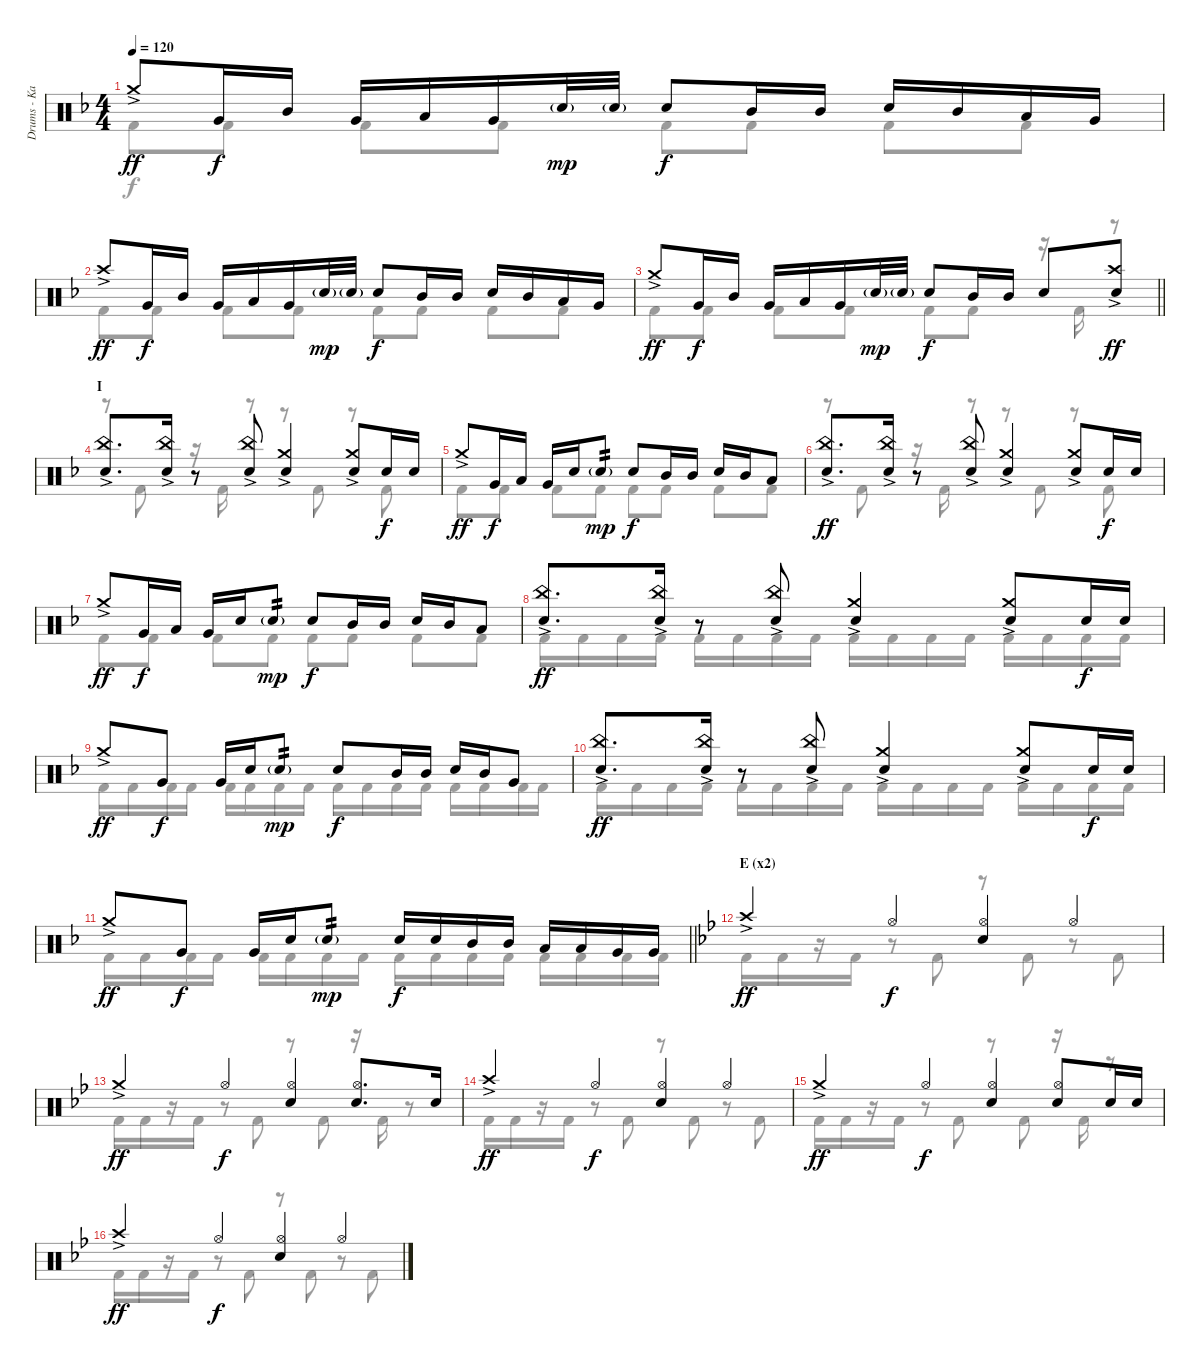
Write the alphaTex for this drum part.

\track ("Drums - Kai" "Drums - Ka") {instrument percussion}
\staff {score}
\articulation defaults
\voice
\ts (4 4)
\tempo 120
\clef neutral
\ks f "Crash medium (hit)"{ac}.8{dy ff} "Very Low Tom (hit)".16{dy f} "Mid Tom (hit)".16 "Very Low Tom (hit)".16 "Low Tom (hit)".16 "Very Low Tom (hit)".16 "Snare (hit) 2"{g}.32{dy mp} "Snare (hit) 2"{g}.32 "Snare (hit) 2".8{dy f} "Mid Tom (hit)".16 "Mid Tom (hit)".16 "Snare (hit) 2".16 "Mid Tom (hit)".16 "Low Tom (hit)".16 "Very Low Tom (hit)".16
|
"Crash high (hit)"{ac}.8{dy ff} "Very Low Tom (hit)".16{dy f} "Mid Tom (hit)".16 "Very Low Tom (hit)".16 "Low Tom (hit)".16 "Very Low Tom (hit)".16 "Snare (hit) 2"{g}.32{dy mp} "Snare (hit) 2"{g}.32 "Snare (hit) 2".8{dy f} "Mid Tom (hit)".16 "Mid Tom (hit)".16 "Snare (hit) 2".16 "Mid Tom (hit)".16 "Low Tom (hit)".16 "Very Low Tom (hit)".16 |
\barLineRight lightlight "Crash medium (hit)"{ac}.8{dy ff} "Very Low Tom (hit)".16{dy f} "Mid Tom (hit)".16 "Very Low Tom (hit)".16 "Low Tom (hit)".16 "Very Low Tom (hit)".16 "Snare (hit) 2"{g}.32{dy mp} "Snare (hit) 2"{g}.32 "Snare (hit) 2".8{dy f} "Mid Tom (hit)".16 "Mid Tom (hit)".16 "Snare (hit) 2".8
("Crash high (hit)"{ac} "Snare (hit) 2").8{dy ff} |
\section ("" "I")
("China (hit)"{ac} "Snare (hit) 2").8{d} ("China (hit)"{ac} "Snare (hit) 2").16 r.8 ("China (hit)"{ac} "Snare (hit) 2").8 ("Crash medium (hit)"{ac} "Snare (hit) 2").4 ("Crash medium (hit)"{ac} "Snare (hit) 2").8 "Snare (hit) 2".16{dy f} "Snare (hit) 2".16 |
"Crash medium (hit)"{ac}.8{dy ff} "Very Low Tom (hit)".16{dy f} "Low Tom (hit)".16 "Very Low Tom (hit)".16 "Snare (hit) 2".16 "Snare (hit) 2"{g}.8{tp 2 dy mp} "Snare (hit) 2".8{dy f} "Mid Tom (hit)".16 "Mid Tom (hit)".16 "Snare (hit) 2".16 "Mid Tom (hit)".16 "Low Tom (hit)".8 |
("China (hit)"{ac} "Snare (hit) 2").8{d dy ff} ("China (hit)"{ac} "Snare (hit) 2").16 r.8 ("China (hit)"{ac} "Snare (hit) 2").8 ("Crash medium (hit)"{ac} "Snare (hit) 2").4 ("Crash medium (hit)"{ac} "Snare (hit) 2").8 "Snare (hit) 2".16{dy f} "Snare (hit) 2".16 |
"Crash medium (hit)"{ac}.8{dy ff} "Very Low Tom (hit)".16{dy f} "Low Tom (hit)".16 "Very Low Tom (hit)".16 "Snare (hit) 2".16 "Snare (hit) 2"{g}.8{tp 2 dy mp} "Snare (hit) 2".8{dy f} "Mid Tom (hit)".16 "Mid Tom (hit)".16 "Snare (hit) 2".16 "Mid Tom (hit)".16 "Low Tom (hit)".8 |
("China (hit)"{ac} "Snare (hit) 2").8{d dy ff} ("China (hit)"{ac} "Snare (hit) 2").16 r.8 ("China (hit)"{ac} "Snare (hit) 2").8 ("Crash medium (hit)"{ac} "Snare (hit) 2").4 ("Crash medium (hit)"{ac} "Snare (hit) 2").8 "Snare (hit) 2".16{dy f} "Snare (hit) 2".16 |
"Crash medium (hit)"{ac}.8{dy ff} "Very Low Tom (hit)".8{dy f} "Very Low Tom (hit)".16 "Snare (hit) 2".16 "Snare (hit) 2"{g}.8{tp 2 dy mp} "Snare (hit) 2".8{dy f} "Mid Tom (hit)".16 "Mid Tom (hit)".16 "Snare (hit) 2".16 "Mid Tom (hit)".16 "Very Low Tom (hit)".8 |
("China (hit)"{ac} "Snare (hit) 2").8{d dy ff} ("China (hit)"{ac} "Snare (hit) 2").16 r.8 ("China (hit)"{ac} "Snare (hit) 2").8 ("Crash medium (hit)"{ac} "Snare (hit) 2").4 ("Crash medium (hit)"{ac} "Snare (hit) 2").8 "Snare (hit) 2".16{dy f} "Snare (hit) 2".16 |
\barLineRight lightlight "Crash medium (hit)"{ac}.8{dy ff} "Very Low Tom (hit)".8{dy f} "Very Low Tom (hit)".16 "Snare (hit) 2".16 "Snare (hit) 2"{g}.8{tp 2 dy mp} "Snare (hit) 2".16{dy f} "Snare (hit) 2".16 "Mid Tom (hit)".16 "Mid Tom (hit)".16 "Low Tom (hit)".16 "Low Tom (hit)".16 "Very Low Tom (hit)".16 "Very Low Tom (hit)".16
|
\section ("" "E (x2)")
\ks bb "Crash high (hit)"{ac}.4{dy ff} "Hi-Hat (open)".4{dy f}
("Hi-Hat (open)" "Snare (hit) 2").4 "Hi-Hat (open)".4 |
"Crash medium (hit)"{ac}.4{dy ff} "Hi-Hat (open)".4{dy f} ("Hi-Hat (open)" "Snare (hit) 2").4 ("Hi-Hat (open)" "Snare (hit) 2").8{d} "Snare (hit) 2".16 |
"Crash high (hit)"{ac}.4{dy ff} "Hi-Hat (open)".4{dy f} ("Hi-Hat (open)" "Snare (hit) 2").4 "Hi-Hat (open)".4 |
"Crash medium (hit)"{ac}.4{dy ff} "Hi-Hat (open)".4{dy f} ("Hi-Hat (open)" "Snare (hit) 2").4 ("Hi-Hat (open)" "Snare (hit) 2").8 "Snare (hit) 2".16 "Snare (hit) 2".16 |
"Crash high (hit)"{ac}.4{dy ff} "Hi-Hat (open)".4{dy f} ("Hi-Hat (open)" "Snare (hit) 2").4 "Hi-Hat (open)".4
\voice
\clef neutral
\ottava regular
\simile none
\ks f "Kick (hit) 2".8{dy f} "Kick (hit) 2".8 "Kick (hit) 2".8 "Kick (hit) 2".8 "Kick (hit) 2".8 "Kick (hit) 2".8 "Kick (hit) 2".8 "Kick (hit) 2".8
|
"Kick (hit) 2".8 "Kick (hit) 2".8 "Kick (hit) 2".8 "Kick (hit) 2".8 "Kick (hit) 2".8 "Kick (hit) 2".8 "Kick (hit) 2".8 "Kick (hit) 2".8 |
\barLineRight lightlight "Kick (hit) 2".8 "Kick (hit) 2".8 "Kick (hit) 2".8 "Kick (hit) 2".8 "Kick (hit) 2".8 "Kick (hit) 2".8
r.16 "Kick (hit) 2".16 r.8 |
r.8 "Kick (hit) 2".8 r.16 "Kick (hit) 2".16 r.8 r.8 "Kick (hit) 2".8 r.8 "Kick (hit) 2".8 |
"Kick (hit) 2".8 "Kick (hit) 2".8 "Kick (hit) 2".8 "Kick (hit) 2".8 "Kick (hit) 2".8 "Kick (hit) 2".8 "Kick (hit) 2".8 "Kick (hit) 2".8 |
r.8 "Kick (hit) 2".8 r.16 "Kick (hit) 2".16 r.8 r.8 "Kick (hit) 2".8 r.8 "Kick (hit) 2".8 |
"Kick (hit) 2".8 "Kick (hit) 2".8 "Kick (hit) 2".8 "Kick (hit) 2".8 "Kick (hit) 2".8 "Kick (hit) 2".8 "Kick (hit) 2".8 "Kick (hit) 2".8 |
"Kick (hit) 2".16 "Kick (hit) 2".16 "Kick (hit) 2".16 "Kick (hit) 2".16 "Kick (hit) 2".16 "Kick (hit) 2".16 "Kick (hit) 2".16 "Kick (hit) 2".16 "Kick (hit) 2".16 "Kick (hit) 2".16 "Kick (hit) 2".16 "Kick (hit) 2".16 "Kick (hit) 2".16 "Kick (hit) 2".16 "Kick (hit) 2".16 "Kick (hit) 2".16 |
"Kick (hit) 2".16 "Kick (hit) 2".16 "Kick (hit) 2".16 "Kick (hit) 2".16 "Kick (hit) 2".16 "Kick (hit) 2".16 "Kick (hit) 2".16 "Kick (hit) 2".16 "Kick (hit) 2".16 "Kick (hit) 2".16 "Kick (hit) 2".16 "Kick (hit) 2".16 "Kick (hit) 2".16 "Kick (hit) 2".16 "Kick (hit) 2".16 "Kick (hit) 2".16 |
"Kick (hit) 2".16 "Kick (hit) 2".16 "Kick (hit) 2".16 "Kick (hit) 2".16 "Kick (hit) 2".16 "Kick (hit) 2".16 "Kick (hit) 2".16 "Kick (hit) 2".16 "Kick (hit) 2".16 "Kick (hit) 2".16 "Kick (hit) 2".16 "Kick (hit) 2".16 "Kick (hit) 2".16 "Kick (hit) 2".16 "Kick (hit) 2".16 "Kick (hit) 2".16 |
\barLineRight lightlight "Kick (hit) 2".16 "Kick (hit) 2".16 "Kick (hit) 2".16 "Kick (hit) 2".16 "Kick (hit) 2".16 "Kick (hit) 2".16 "Kick (hit) 2".16 "Kick (hit) 2".16 "Kick (hit) 2".16 "Kick (hit) 2".16 "Kick (hit) 2".16 "Kick (hit) 2".16 "Kick (hit) 2".16 "Kick (hit) 2".16 "Kick (hit) 2".16 "Kick (hit) 2".16
|
\ks bb "Kick (hit) 2".16 "Kick (hit) 2".16
r.16 "Kick (hit) 2".16 r.8 "Kick (hit) 2".8 r.8 "Kick (hit) 2".8 r.8 "Kick (hit) 2".8 |
"Kick (hit) 2".16 "Kick (hit) 2".16 r.16 "Kick (hit) 2".16 r.8 "Kick (hit) 2".8 r.8 "Kick (hit) 2".8 r.16 "Kick (hit) 2".16 r.8 |
"Kick (hit) 2".16 "Kick (hit) 2".16 r.16 "Kick (hit) 2".16 r.8 "Kick (hit) 2".8 r.8 "Kick (hit) 2".8 r.8 "Kick (hit) 2".8 |
"Kick (hit) 2".16 "Kick (hit) 2".16 r.16 "Kick (hit) 2".16 r.8 "Kick (hit) 2".8 r.8 "Kick (hit) 2".8 r.16 "Kick (hit) 2".16 r.8 |
"Kick (hit) 2".16 "Kick (hit) 2".16 r.16 "Kick (hit) 2".16 r.8 "Kick (hit) 2".8 r.8 "Kick (hit) 2".8 r.8 "Kick (hit) 2".8
